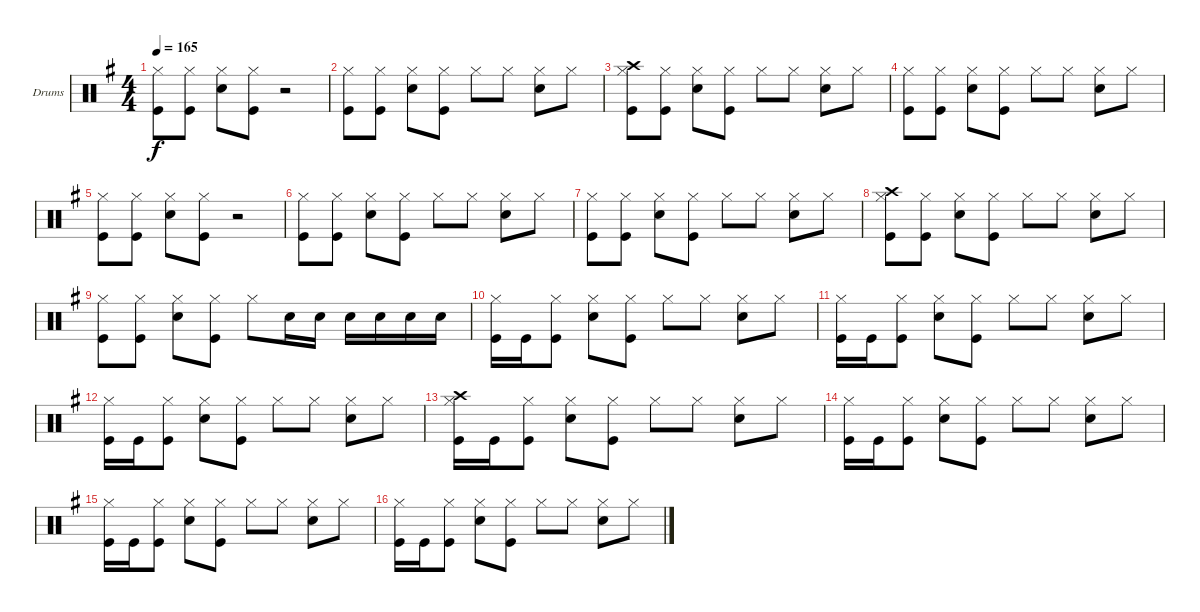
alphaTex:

\defaultSystemsLayout 4
\bracketExtendMode groupsimilarinstruments
\firstSystemTrackNameOrientation horizontal
\otherSystemsTrackNameOrientation horizontal
\track ("Drumkit" "Drums") {instrument percussion}
\staff {score}
\articulation defaults
\ts (4 4)
\tempo 165
\clef neutral
\scale
1.04288
\ks g
("Hi-Hat (closed)" "Kick (hit)").8{dy f} ("Hi-Hat (closed)" "Kick (hit)").8 ("Hi-Hat (closed)" "Snare (hit) 2").8 ("Hi-Hat (closed)" "Kick (hit)").8 r.2 |
\scale
0.957125 ("Hi-Hat (closed)" "Kick (hit)").8 ("Hi-Hat (closed)" "Kick (hit)").8 ("Hi-Hat (closed)" "Snare (hit) 2").8 ("Hi-Hat (closed)" "Kick (hit)").8 "Hi-Hat (closed)".8 "Hi-Hat (closed)".8 ("Hi-Hat (closed)" "Snare (hit) 2").8 "Hi-Hat (closed)".8 |
\scale
1.04288 ("Crash high (hit)" "Hi-Hat (closed)" "Kick (hit)").8 ("Hi-Hat (closed)" "Kick (hit)").8 ("Hi-Hat (closed)" "Snare (hit) 2").8 ("Hi-Hat (closed)" "Kick (hit)").8 "Hi-Hat (closed)".8 "Hi-Hat (closed)".8 ("Hi-Hat (closed)" "Snare (hit) 2").8 "Hi-Hat (closed)".8 |
\scale
0.957125 ("Hi-Hat (closed)" "Kick (hit)").8 ("Hi-Hat (closed)" "Kick (hit)").8 ("Hi-Hat (closed)" "Snare (hit) 2").8 ("Hi-Hat (closed)" "Kick (hit)").8 "Hi-Hat (closed)".8 "Hi-Hat (closed)".8 ("Hi-Hat (closed)" "Snare (hit) 2").8 "Hi-Hat (closed)".8 |
\scale
1.04288 ("Hi-Hat (closed)" "Kick (hit)").8 ("Hi-Hat (closed)" "Kick (hit)").8 ("Hi-Hat (closed)" "Snare (hit) 2").8 ("Hi-Hat (closed)" "Kick (hit)").8 r.2 |
\scale
0.957125 ("Hi-Hat (closed)" "Kick (hit)").8 ("Hi-Hat (closed)" "Kick (hit)").8 ("Hi-Hat (closed)" "Snare (hit) 2").8 ("Hi-Hat (closed)" "Kick (hit)").8 "Hi-Hat (closed)".8 "Hi-Hat (closed)".8 ("Hi-Hat (closed)" "Snare (hit) 2").8 "Hi-Hat (closed)".8 |
\scale
1.04288 ("Hi-Hat (closed)" "Kick (hit)").8 ("Hi-Hat (closed)" "Kick (hit)").8 ("Hi-Hat (closed)" "Snare (hit) 2").8 ("Hi-Hat (closed)" "Kick (hit)").8 "Hi-Hat (closed)".8 "Hi-Hat (closed)".8 ("Hi-Hat (closed)" "Snare (hit) 2").8 "Hi-Hat (closed)".8 |
\scale
0.957125 ("Crash high (hit)" "Hi-Hat (closed)" "Kick (hit)").8 ("Hi-Hat (closed)" "Kick (hit)").8 ("Hi-Hat (closed)" "Snare (hit) 2").8 ("Hi-Hat (closed)" "Kick (hit)").8 "Hi-Hat (closed)".8 "Hi-Hat (closed)".8 ("Hi-Hat (closed)" "Snare (hit) 2").8 "Hi-Hat (closed)".8 |
\scale
1.04288 ("Hi-Hat (closed)" "Kick (hit)").8 ("Hi-Hat (closed)" "Kick (hit)").8 ("Hi-Hat (closed)" "Snare (hit) 2").8 ("Hi-Hat (closed)" "Kick (hit)").8 "Hi-Hat (closed)".8 "Snare (hit) 2".16 "Snare (hit) 2".16 "Snare (hit) 2".16 "Snare (hit) 2".16 "Snare (hit) 2".16 "Snare (hit) 2".16 |
\scale
0.957125 ("Hi-Hat (closed)" "Kick (hit)").16 "Kick (hit)".16 ("Hi-Hat (closed)" "Kick (hit)").8 ("Hi-Hat (closed)" "Snare (hit) 2").8 ("Hi-Hat (closed)" "Kick (hit)").8 "Hi-Hat (closed)".8 "Hi-Hat (closed)".8 ("Hi-Hat (closed)" "Snare (hit) 2").8 "Hi-Hat (closed)".8 |
\scale
1.04288 ("Hi-Hat (closed)" "Kick (hit)").16 "Kick (hit)".16 ("Hi-Hat (closed)" "Kick (hit)").8 ("Hi-Hat (closed)" "Snare (hit) 2").8 ("Hi-Hat (closed)" "Kick (hit)").8 "Hi-Hat (closed)".8 "Hi-Hat (closed)".8 ("Hi-Hat (closed)" "Snare (hit) 2").8 "Hi-Hat (closed)".8 |
\scale
0.957125 ("Hi-Hat (closed)" "Kick (hit)").16 "Kick (hit)".16 ("Hi-Hat (closed)" "Kick (hit)").8 ("Hi-Hat (closed)" "Snare (hit) 2").8 ("Hi-Hat (closed)" "Kick (hit)").8 "Hi-Hat (closed)".8 "Hi-Hat (closed)".8 ("Hi-Hat (closed)" "Snare (hit) 2").8 "Hi-Hat (closed)".8 |
\scale
1.04288 ("Crash high (hit)" "Hi-Hat (closed)" "Kick (hit)").16 "Kick (hit)".16 ("Hi-Hat (closed)" "Kick (hit)").8 ("Hi-Hat (closed)" "Snare (hit) 2").8 ("Hi-Hat (closed)" "Kick (hit)").8 "Hi-Hat (closed)".8 "Hi-Hat (closed)".8 ("Hi-Hat (closed)" "Snare (hit) 2").8 "Hi-Hat (closed)".8 |
\scale
0.957125 ("Hi-Hat (closed)" "Kick (hit)").16 "Kick (hit)".16 ("Hi-Hat (closed)" "Kick (hit)").8 ("Hi-Hat (closed)" "Snare (hit) 2").8 ("Hi-Hat (closed)" "Kick (hit)").8 "Hi-Hat (closed)".8 "Hi-Hat (closed)".8 ("Hi-Hat (closed)" "Snare (hit) 2").8 "Hi-Hat (closed)".8 |
\scale
1.04288 ("Hi-Hat (closed)" "Kick (hit)").16 "Kick (hit)".16 ("Hi-Hat (closed)" "Kick (hit)").8 ("Hi-Hat (closed)" "Snare (hit) 2").8 ("Hi-Hat (closed)" "Kick (hit)").8 "Hi-Hat (closed)".8 "Hi-Hat (closed)".8 ("Hi-Hat (closed)" "Snare (hit) 2").8 "Hi-Hat (closed)".8 |
\scale
0.957125 ("Hi-Hat (closed)" "Kick (hit)").16 "Kick (hit)".16 ("Hi-Hat (closed)" "Kick (hit)").8 ("Hi-Hat (closed)" "Snare (hit) 2").8 ("Hi-Hat (closed)" "Kick (hit)").8 "Hi-Hat (closed)".8 "Hi-Hat (closed)".8 ("Hi-Hat (closed)" "Snare (hit) 2").8 "Hi-Hat (closed)".8
